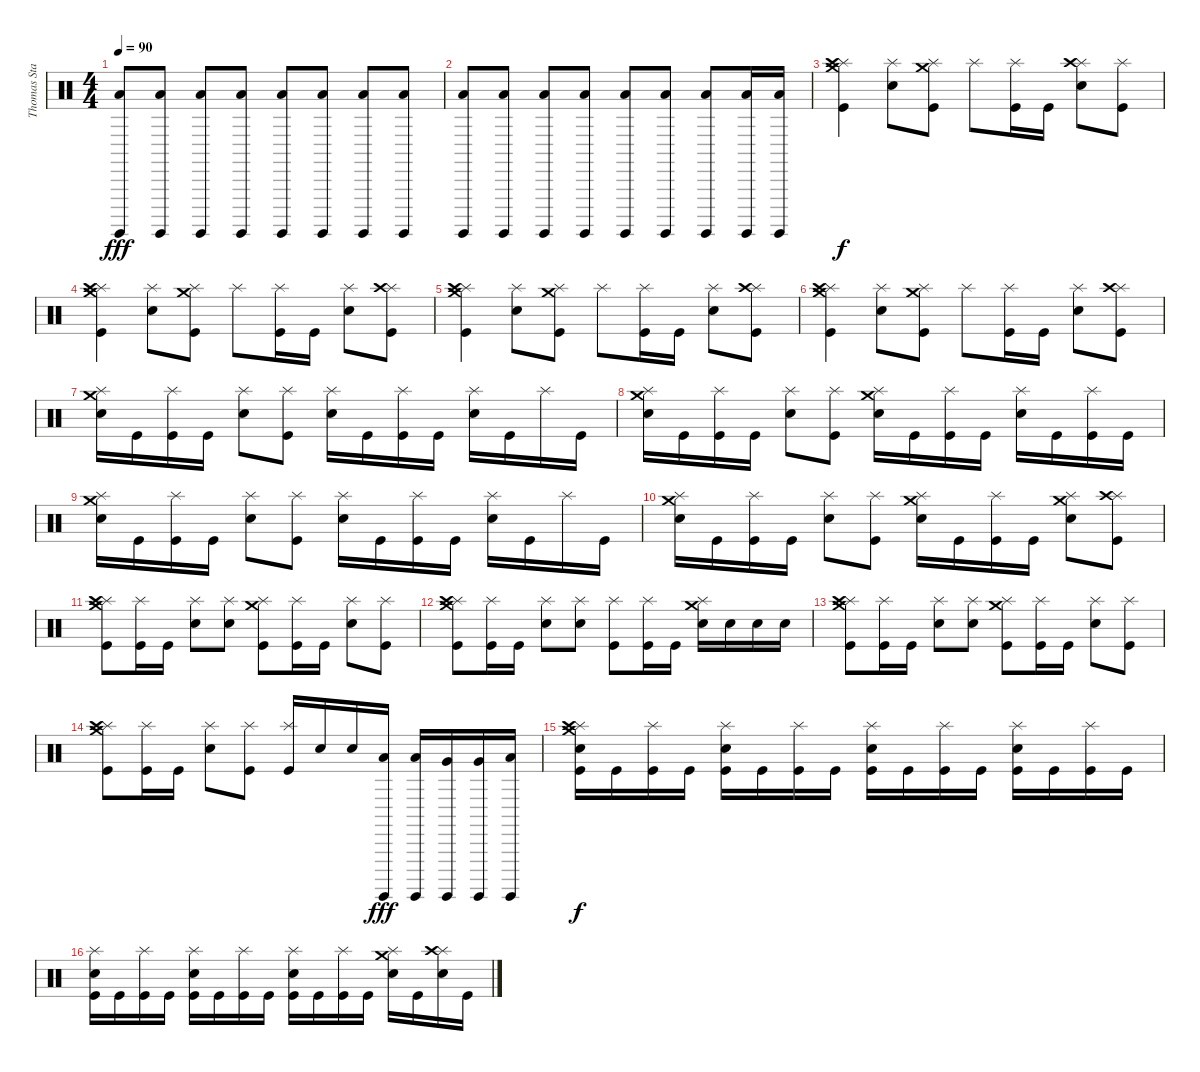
\track ("Thomas Stauch" "Thomas Sta") {instrument percussion}
\staff {score}
\articulation defaults
\ts (4 4)
\tempo 90
\clef neutral
\ks c
("Surdo (hit)" "Low Floor Tom (hit)").8{dy fff} ("Surdo (hit)" "Low Floor Tom (hit)").8 ("Surdo (hit)" "Low Floor Tom (hit)").8 ("Surdo (hit)" "Low Floor Tom (hit)").8 ("Surdo (hit)" "Low Floor Tom (hit)").8 ("Surdo (hit)" "Low Floor Tom (hit)").8 ("Surdo (hit)" "Low Floor Tom (hit)").8 ("Surdo (hit)" "Low Floor Tom (hit)").8 |
("Surdo (hit)" "Low Floor Tom (hit)").8 ("Surdo (hit)" "Low Floor Tom (hit)").8 ("Surdo (hit)" "Low Floor Tom (hit)").8 ("Surdo (hit)" "Low Floor Tom (hit)").8 ("Surdo (hit)" "Low Floor Tom (hit)").8 ("Surdo (hit)" "Low Floor Tom (hit)").8 ("Surdo (hit)" "Low Floor Tom (hit)").8 ("Surdo (hit)" "Low Floor Tom (hit)").16 ("Surdo (hit)" "Low Floor Tom (hit)").16 |
("Crash medium (hit)" "Splash (hit)" "Crash high (hit)" "Kick (hit)").4{dy f} ("Splash (hit)" "Electric Snare (hit)").8 ("Crash medium (hit)" "Splash (hit)" "Kick (hit)").8 "Splash (hit)".8 ("Splash (hit)" "Kick (hit)").16 "Kick (hit)".16 ("Splash (hit)" "Crash high (hit)" "Electric Snare (hit)").8 ("Splash (hit)" "Kick (hit)").8 |
("Crash medium (hit)" "Splash (hit)" "Crash high (hit)" "Kick (hit)").4 ("Splash (hit)" "Electric Snare (hit)").8 ("Crash medium (hit)" "Splash (hit)" "Kick (hit)").8 "Splash (hit)".8 ("Splash (hit)" "Kick (hit)").16 "Kick (hit)".16 ("Splash (hit)" "Electric Snare (hit)").8 ("Splash (hit)" "Crash high (hit)" "Kick (hit)").8 |
("Crash medium (hit)" "Splash (hit)" "Crash high (hit)" "Kick (hit)").4 ("Splash (hit)" "Electric Snare (hit)").8 ("Crash medium (hit)" "Splash (hit)" "Kick (hit)").8 "Splash (hit)".8 ("Splash (hit)" "Kick (hit)").16 "Kick (hit)".16 ("Splash (hit)" "Electric Snare (hit)").8 ("Splash (hit)" "Crash high (hit)" "Kick (hit)").8 |
("Crash medium (hit)" "Splash (hit)" "Crash high (hit)" "Kick (hit)").4 ("Splash (hit)" "Electric Snare (hit)").8 ("Crash medium (hit)" "Splash (hit)" "Kick (hit)").8 "Splash (hit)".8 ("Splash (hit)" "Kick (hit)").16 "Kick (hit)".16 ("Splash (hit)" "Electric Snare (hit)").8 ("Splash (hit)" "Crash high (hit)" "Kick (hit)").8 |
("Crash medium (hit)" "Splash (hit)" "Electric Snare (hit)").16 "Kick (hit)".16 ("Splash (hit)" "Kick (hit)").16 "Kick (hit)".16 ("Splash (hit)" "Electric Snare (hit)").8 ("Splash (hit)" "Kick (hit)").8 ("Splash (hit)" "Electric Snare (hit)").16 "Kick (hit)".16 ("Splash (hit)" "Kick (hit)").16 "Kick (hit)".16 ("Splash (hit)" "Electric Snare (hit)").16 "Kick (hit)".16 "Splash (hit)".16 "Kick (hit)".16 |
("Crash medium (hit)" "Splash (hit)" "Electric Snare (hit)").16 "Kick (hit)".16 ("Splash (hit)" "Kick (hit)").16 "Kick (hit)".16 ("Splash (hit)" "Electric Snare (hit)").8 ("Splash (hit)" "Kick (hit)").8 ("Crash medium (hit)" "Splash (hit)" "Electric Snare (hit)").16 "Kick (hit)".16 ("Splash (hit)" "Kick (hit)").16 "Kick (hit)".16 ("Splash (hit)" "Electric Snare (hit)").16 "Kick (hit)".16 ("Splash (hit)" "Kick (hit)").16 "Kick (hit)".16 |
("Crash medium (hit)" "Splash (hit)" "Electric Snare (hit)").16 "Kick (hit)".16 ("Splash (hit)" "Kick (hit)").16 "Kick (hit)".16 ("Splash (hit)" "Electric Snare (hit)").8 ("Splash (hit)" "Kick (hit)").8 ("Splash (hit)" "Electric Snare (hit)").16 "Kick (hit)".16 ("Splash (hit)" "Kick (hit)").16 "Kick (hit)".16 ("Splash (hit)" "Electric Snare (hit)").16 "Kick (hit)".16 "Splash (hit)".16 "Kick (hit)".16 |
("Crash medium (hit)" "Splash (hit)" "Electric Snare (hit)").16 "Kick (hit)".16 ("Splash (hit)" "Kick (hit)").16 "Kick (hit)".16 ("Splash (hit)" "Electric Snare (hit)").8 ("Splash (hit)" "Kick (hit)").8 ("Crash medium (hit)" "Splash (hit)" "Electric Snare (hit)").16 "Kick (hit)".16 ("Splash (hit)" "Kick (hit)").16 "Kick (hit)".16 ("Crash medium (hit)" "Splash (hit)" "Electric Snare (hit)").8 ("Splash (hit)" "Crash high (hit)" "Kick (hit)").8 |
("Crash medium (hit)" "Splash (hit)" "Crash high (hit)" "Kick (hit)").8 ("Splash (hit)" "Kick (hit)").16 "Kick (hit)".16 ("Splash (hit)" "Electric Snare (hit)").8 ("Splash (hit)" "Electric Snare (hit)").8 ("Crash medium (hit)" "Splash (hit)" "Kick (hit)").8 ("Splash (hit)" "Kick (hit)").16 "Kick (hit)".16 ("Splash (hit)" "Electric Snare (hit)").8 ("Splash (hit)" "Kick (hit)").8 |
("Crash medium (hit)" "Splash (hit)" "Crash high (hit)" "Kick (hit)").8 ("Splash (hit)" "Kick (hit)").16 "Kick (hit)".16 ("Splash (hit)" "Electric Snare (hit)").8 ("Splash (hit)" "Electric Snare (hit)").8 ("Splash (hit)" "Kick (hit)").8 ("Splash (hit)" "Kick (hit)").16 "Kick (hit)".16 ("Crash medium (hit)" "Splash (hit)" "Electric Snare (hit)").16 "Electric Snare (hit)".16 "Electric Snare (hit)".16 "Electric Snare (hit)".16 |
("Crash medium (hit)" "Splash (hit)" "Crash high (hit)" "Kick (hit)").8 ("Splash (hit)" "Kick (hit)").16 "Kick (hit)".16 ("Splash (hit)" "Electric Snare (hit)").8 ("Splash (hit)" "Electric Snare (hit)").8 ("Crash medium (hit)" "Splash (hit)" "Kick (hit)").8 ("Splash (hit)" "Kick (hit)").16 "Kick (hit)".16 ("Splash (hit)" "Electric Snare (hit)").8 ("Splash (hit)" "Kick (hit)").8 |
("Crash medium (hit)" "Splash (hit)" "Crash high (hit)" "Kick (hit)").8 ("Splash (hit)" "Kick (hit)").16 "Kick (hit)".16 ("Splash (hit)" "Electric Snare (hit)").8 ("Splash (hit)" "Kick (hit)").8 ("Splash (hit)" "Kick (hit)").16 "Electric Snare (hit)".16 "Electric Snare (hit)".16 ("Surdo (hit)" "Low Tom (hit)").16{dy fff} ("Surdo (hit)" "Low Tom (hit)").16 ("Surdo (hit)" "Very Low Tom (hit)").16 ("Surdo (hit)" "Very Low Tom (hit)").16 ("Surdo (hit)" "Low Floor Tom (hit)").16 |
("Crash medium (hit)" "Splash (hit)" "Crash high (hit)" "Electric Snare (hit)" "Kick (hit)").16{dy f} "Kick (hit)".16 ("Splash (hit)" "Kick (hit)").16 "Kick (hit)".16 ("Splash (hit)" "Electric Snare (hit)" "Kick (hit)").16 "Kick (hit)".16 ("Splash (hit)" "Kick (hit)").16 "Kick (hit)".16 ("Splash (hit)" "Electric Snare (hit)" "Kick (hit)").16 "Kick (hit)".16 ("Splash (hit)" "Kick (hit)").16 "Kick (hit)".16 ("Splash (hit)" "Electric Snare (hit)" "Kick (hit)").16 "Kick (hit)".16 ("Splash (hit)" "Kick (hit)").16 "Kick (hit)".16 |
("Splash (hit)" "Electric Snare (hit)" "Kick (hit)").16 "Kick (hit)".16 ("Splash (hit)" "Kick (hit)").16 "Kick (hit)".16 ("Splash (hit)" "Electric Snare (hit)" "Kick (hit)").16 "Kick (hit)".16 ("Splash (hit)" "Kick (hit)").16 "Kick (hit)".16 ("Splash (hit)" "Electric Snare (hit)" "Kick (hit)").16 "Kick (hit)".16 ("Splash (hit)" "Kick (hit)").16 "Kick (hit)".16 ("Crash medium (hit)" "Splash (hit)" "Electric Snare (hit)").16 "Kick (hit)".16 ("Splash (hit)" "Crash high (hit)" "Electric Snare (hit)").16 "Kick (hit)".16
